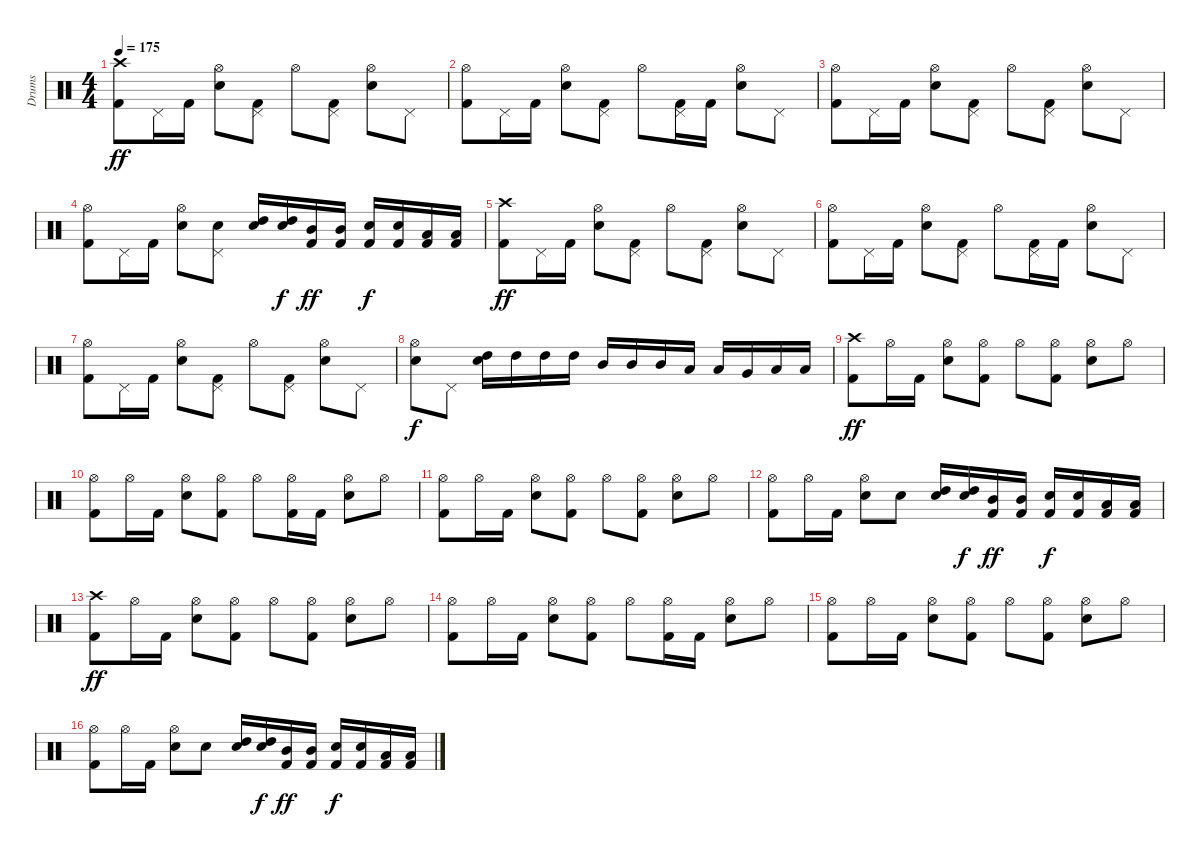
\track ("Drums" "Drums") {instrument percussion}
\staff {score}
\articulation defaults
\ts (4 4)
\tempo 175
\clef neutral
\ks c
("Kick (hit) 2" "Crash high (hit)").8{dy ff} "Pedal Hi-Hat (hit)".16 "Kick (hit) 2".16 ("Hi-Hat (open)" "Electric Snare (hit)").8 ("Kick (hit) 2" "Pedal Hi-Hat (hit)").8 "Hi-Hat (open)".8 ("Kick (hit) 2" "Pedal Hi-Hat (hit)").8 ("Hi-Hat (open)" "Electric Snare (hit)").8 "Pedal Hi-Hat (hit)".8 |
("Kick (hit) 2" "Hi-Hat (open)").8 "Pedal Hi-Hat (hit)".16 "Kick (hit) 2".16 ("Hi-Hat (open)" "Electric Snare (hit)").8 ("Kick (hit) 2" "Pedal Hi-Hat (hit)").8 "Hi-Hat (open)".8 ("Kick (hit) 2" "Pedal Hi-Hat (hit)").16 "Kick (hit) 2".16 ("Hi-Hat (open)" "Electric Snare (hit)").8 "Pedal Hi-Hat (hit)".8 |
("Kick (hit) 2" "Hi-Hat (open)").8 "Pedal Hi-Hat (hit)".16 "Kick (hit) 2".16 ("Hi-Hat (open)" "Electric Snare (hit)").8 ("Kick (hit) 2" "Pedal Hi-Hat (hit)").8 "Hi-Hat (open)".8 ("Kick (hit) 2" "Pedal Hi-Hat (hit)").8 ("Hi-Hat (open)" "Electric Snare (hit)").8 "Pedal Hi-Hat (hit)".8 |
("Kick (hit) 2" "Hi-Hat (open)").8 "Pedal Hi-Hat (hit)".16 "Kick (hit) 2".16 ("Hi-Hat (open)" "Electric Snare (hit)").8 ("Snare (hit) 2" "Pedal Hi-Hat (hit)").8 ("Electric Snare (hit)" "High Tom (hit)").16 ("Electric Snare (hit)" "High Tom (hit)").16{dy f} ("Kick (hit) 2" "Mid Tom (hit)").16{dy ff} ("Kick (hit) 2" "Mid Tom (hit)").16 ("Kick (hit) 2" "Electric Snare (hit)").16{dy f} ("Kick (hit) 2" "Electric Snare (hit)").16 ("Kick (hit) 2" "Low Tom (hit)").16 ("Kick (hit) 2" "Low Tom (hit)").16 |
("Kick (hit) 2" "Crash high (hit)").8{dy ff} "Pedal Hi-Hat (hit)".16 "Kick (hit) 2".16 ("Hi-Hat (open)" "Electric Snare (hit)").8 ("Kick (hit) 2" "Pedal Hi-Hat (hit)").8 "Hi-Hat (open)".8 ("Kick (hit) 2" "Pedal Hi-Hat (hit)").8 ("Hi-Hat (open)" "Electric Snare (hit)").8 "Pedal Hi-Hat (hit)".8 |
("Kick (hit) 2" "Hi-Hat (open)").8 "Pedal Hi-Hat (hit)".16 "Kick (hit) 2".16 ("Hi-Hat (open)" "Electric Snare (hit)").8 ("Kick (hit) 2" "Pedal Hi-Hat (hit)").8 "Hi-Hat (open)".8 ("Kick (hit) 2" "Pedal Hi-Hat (hit)").16 "Kick (hit) 2".16 ("Hi-Hat (open)" "Electric Snare (hit)").8 "Pedal Hi-Hat (hit)".8 |
("Kick (hit) 2" "Hi-Hat (open)").8 "Pedal Hi-Hat (hit)".16 "Kick (hit) 2".16 ("Hi-Hat (open)" "Electric Snare (hit)").8 ("Kick (hit) 2" "Pedal Hi-Hat (hit)").8 "Hi-Hat (open)".8 ("Kick (hit) 2" "Pedal Hi-Hat (hit)").8 ("Hi-Hat (open)" "Electric Snare (hit)").8 "Pedal Hi-Hat (hit)".8 |
("Hi-Hat (open)" "Snare (hit) 2").8{dy f} "Pedal Hi-Hat (hit)".8 ("High Tom (hit)" "Snare (hit) 2").16 "High Tom (hit)".16 "High Tom (hit)".16 "High Tom (hit)".16 "Mid Tom (hit)".16 "Mid Tom (hit)".16 "Mid Tom (hit)".16 "Low Tom (hit)".16 "Low Tom (hit)".16 "Very Low Tom (hit)".16 "Low Floor Tom (hit)".16 "Low Floor Tom (hit)".16 |
("Kick (hit) 2" "Crash high (hit)").8{dy ff} "Hi-Hat (open)".16 "Kick (hit) 2".16 ("Hi-Hat (open)" "Electric Snare (hit)").8 ("Kick (hit) 2" "Hi-Hat (open)").8 "Hi-Hat (open)".8 ("Kick (hit) 2" "Hi-Hat (open)").8 ("Hi-Hat (open)" "Electric Snare (hit)").8 "Hi-Hat (open)".8 |
("Kick (hit) 2" "Hi-Hat (open)").8 "Hi-Hat (open)".16 "Kick (hit) 2".16 ("Hi-Hat (open)" "Electric Snare (hit)").8 ("Kick (hit) 2" "Hi-Hat (open)").8 "Hi-Hat (open)".8 ("Kick (hit) 2" "Hi-Hat (open)").16 "Kick (hit) 2".16 ("Hi-Hat (open)" "Electric Snare (hit)").8 "Hi-Hat (open)".8 |
("Kick (hit) 2" "Hi-Hat (open)").8 "Hi-Hat (open)".16 "Kick (hit) 2".16 ("Hi-Hat (open)" "Electric Snare (hit)").8 ("Kick (hit) 2" "Hi-Hat (open)").8 "Hi-Hat (open)".8 ("Kick (hit) 2" "Hi-Hat (open)").8 ("Hi-Hat (open)" "Electric Snare (hit)").8 "Hi-Hat (open)".8 |
("Kick (hit) 2" "Hi-Hat (open)").8 "Hi-Hat (open)".16 "Kick (hit) 2".16 ("Hi-Hat (open)" "Electric Snare (hit)").8 "Snare (hit) 2".8 ("Electric Snare (hit)" "High Tom (hit)").16 ("Electric Snare (hit)" "High Tom (hit)").16{dy f} ("Kick (hit) 2" "Mid Tom (hit)").16{dy ff} ("Kick (hit) 2" "Mid Tom (hit)").16 ("Kick (hit) 2" "Electric Snare (hit)").16{dy f} ("Kick (hit) 2" "Electric Snare (hit)").16 ("Kick (hit) 2" "Low Tom (hit)").16 ("Kick (hit) 2" "Low Tom (hit)").16 |
("Kick (hit) 2" "Crash high (hit)").8{dy ff} "Hi-Hat (open)".16 "Kick (hit) 2".16 ("Hi-Hat (open)" "Electric Snare (hit)").8 ("Kick (hit) 2" "Hi-Hat (open)").8 "Hi-Hat (open)".8 ("Kick (hit) 2" "Hi-Hat (open)").8 ("Hi-Hat (open)" "Electric Snare (hit)").8 "Hi-Hat (open)".8 |
("Kick (hit) 2" "Hi-Hat (open)").8 "Hi-Hat (open)".16 "Kick (hit) 2".16 ("Hi-Hat (open)" "Electric Snare (hit)").8 ("Kick (hit) 2" "Hi-Hat (open)").8 "Hi-Hat (open)".8 ("Kick (hit) 2" "Hi-Hat (open)").16 "Kick (hit) 2".16 ("Hi-Hat (open)" "Electric Snare (hit)").8 "Hi-Hat (open)".8 |
("Kick (hit) 2" "Hi-Hat (open)").8 "Hi-Hat (open)".16 "Kick (hit) 2".16 ("Hi-Hat (open)" "Electric Snare (hit)").8 ("Kick (hit) 2" "Hi-Hat (open)").8 "Hi-Hat (open)".8 ("Kick (hit) 2" "Hi-Hat (open)").8 ("Hi-Hat (open)" "Electric Snare (hit)").8 "Hi-Hat (open)".8 |
("Kick (hit) 2" "Hi-Hat (open)").8 "Hi-Hat (open)".16 "Kick (hit) 2".16 ("Hi-Hat (open)" "Electric Snare (hit)").8 "Snare (hit) 2".8 ("Electric Snare (hit)" "High Tom (hit)").16 ("Electric Snare (hit)" "High Tom (hit)").16{dy f} ("Kick (hit) 2" "Mid Tom (hit)").16{dy ff} ("Kick (hit) 2" "Mid Tom (hit)").16 ("Kick (hit) 2" "Electric Snare (hit)").16{dy f} ("Kick (hit) 2" "Electric Snare (hit)").16 ("Kick (hit) 2" "Low Tom (hit)").16 ("Kick (hit) 2" "Low Tom (hit)").16
